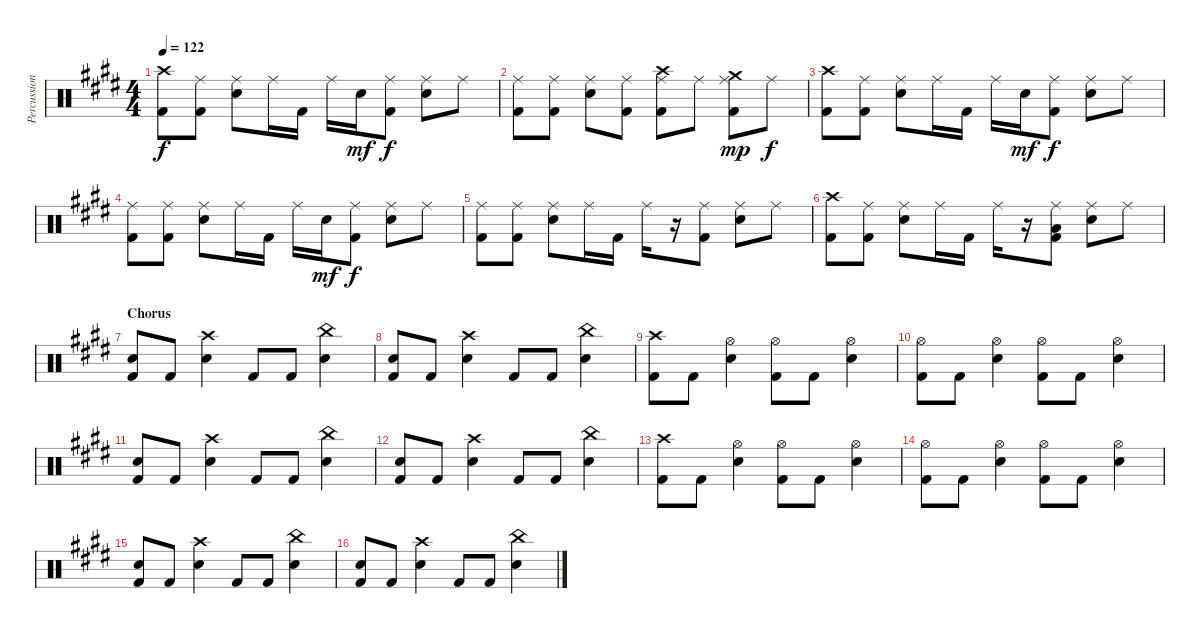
\track ("Percussion" "Percussion") {instrument percussion}
\staff {score}
\articulation defaults
\ts (4 4)
\tempo 122
\clef neutral
\ks e
("Crash high (hit)" "Kick (hit) 2").8{dy f} ("Ride (middle)" "Kick (hit) 2").8 ("Ride (middle)" "Snare (hit) 2").8 "Ride (middle)".16 "Kick (hit) 2".16 "Ride (middle)".16 "Snare (hit) 2".16{dy mf} ("Ride (middle)" "Kick (hit) 2").8{dy f} ("Ride (middle)" "Snare (hit) 2").8 "Ride (middle)".8 |
("Ride (middle)" "Kick (hit) 2").8 ("Ride (middle)" "Kick (hit) 2").8 ("Ride (middle)" "Snare (hit) 2").8 ("Ride (middle)" "Kick (hit) 2").8 ("Crash high (hit)" "Ride (middle)" "Kick (hit) 2").8 "Ride (middle)".8 ("Crash medium (hit)" "Ride (middle)" "Kick (hit) 2").8{dy mp} "Ride (middle)".8{dy f} |
("Crash high (hit)" "Kick (hit) 2").8 ("Ride (middle)" "Kick (hit) 2").8 ("Ride (middle)" "Snare (hit) 2").8 "Ride (middle)".16 "Kick (hit) 2".16 "Ride (middle)".16 "Snare (hit) 2".16{dy mf} ("Ride (middle)" "Kick (hit) 2").8{dy f} ("Ride (middle)" "Snare (hit) 2").8 "Ride (middle)".8 |
("Ride (middle)" "Kick (hit) 2").8 ("Ride (middle)" "Kick (hit) 2").8 ("Ride (middle)" "Snare (hit) 2").8 "Ride (middle)".16 "Kick (hit) 2".16 "Ride (middle)".16 "Snare (hit) 2".16{dy mf} ("Ride (middle)" "Kick (hit) 2").8{dy f} ("Ride (middle)" "Snare (hit) 2").8 "Ride (middle)".8 |
("Ride (middle)" "Kick (hit) 2").8 ("Ride (middle)" "Kick (hit) 2").8 ("Ride (middle)" "Snare (hit) 2").8 "Ride (middle)".16 "Kick (hit) 2".16 "Ride (middle)".16 r.16 ("Ride (middle)" "Kick (hit) 2").8 ("Ride (middle)" "Snare (hit) 2").8 "Ride (middle)".8 |
("Crash high (hit)" "Kick (hit) 2").8 ("Ride (middle)" "Kick (hit) 2").8 ("Ride (middle)" "Snare (hit) 2").8 "Ride (middle)".16 "Kick (hit) 2".16 "Ride (middle)".16 r.16 ("Ride (middle)" "Low Tom (hit)" "Kick (hit) 2").8 ("Ride (middle)" "Snare (hit) 2").8 "Ride (middle)".8 |
\section ("" "Chorus")
("Snare (hit) 2" "Kick (hit) 2").8 "Kick (hit) 2".8 ("Crash high (hit)" "Snare (hit) 2").4 "Kick (hit) 2".8 "Kick (hit) 2".8 ("China (hit)" "Snare (hit) 2").4 |
("Snare (hit) 2" "Kick (hit) 2").8 "Kick (hit) 2".8 ("Crash high (hit)" "Snare (hit) 2").4 "Kick (hit) 2".8 "Kick (hit) 2".8 ("China (hit)" "Snare (hit) 2").4 |
("Crash high (hit)" "Kick (hit) 2").8 "Kick (hit) 2".8 ("Hi-Hat (open)" "Snare (hit) 2").4 ("Hi-Hat (open)" "Kick (hit) 2").8 "Kick (hit) 2".8 ("Hi-Hat (open)" "Snare (hit) 2").4 |
("Hi-Hat (open)" "Kick (hit) 2").8 "Kick (hit) 2".8 ("Hi-Hat (open)" "Snare (hit) 2").4 ("Hi-Hat (open)" "Kick (hit) 2").8 "Kick (hit) 2".8 ("Hi-Hat (open)" "Snare (hit) 2").4 |
("Snare (hit) 2" "Kick (hit) 2").8 "Kick (hit) 2".8 ("Crash high (hit)" "Snare (hit) 2").4 "Kick (hit) 2".8 "Kick (hit) 2".8 ("China (hit)" "Snare (hit) 2").4 |
("Snare (hit) 2" "Kick (hit) 2").8 "Kick (hit) 2".8 ("Crash high (hit)" "Snare (hit) 2").4 "Kick (hit) 2".8 "Kick (hit) 2".8 ("China (hit)" "Snare (hit) 2").4 |
("Crash high (hit)" "Kick (hit) 2").8 "Kick (hit) 2".8 ("Hi-Hat (open)" "Snare (hit) 2").4 ("Hi-Hat (open)" "Kick (hit) 2").8 "Kick (hit) 2".8 ("Hi-Hat (open)" "Snare (hit) 2").4 |
("Hi-Hat (open)" "Kick (hit) 2").8 "Kick (hit) 2".8 ("Hi-Hat (open)" "Snare (hit) 2").4 ("Hi-Hat (open)" "Kick (hit) 2").8 "Kick (hit) 2".8 ("Hi-Hat (open)" "Snare (hit) 2").4 |
("Snare (hit) 2" "Kick (hit) 2").8 "Kick (hit) 2".8 ("Crash high (hit)" "Snare (hit) 2").4 "Kick (hit) 2".8 "Kick (hit) 2".8 ("China (hit)" "Snare (hit) 2").4 |
("Snare (hit) 2" "Kick (hit) 2").8 "Kick (hit) 2".8 ("Crash high (hit)" "Snare (hit) 2").4 "Kick (hit) 2".8 "Kick (hit) 2".8 ("China (hit)" "Snare (hit) 2").4
